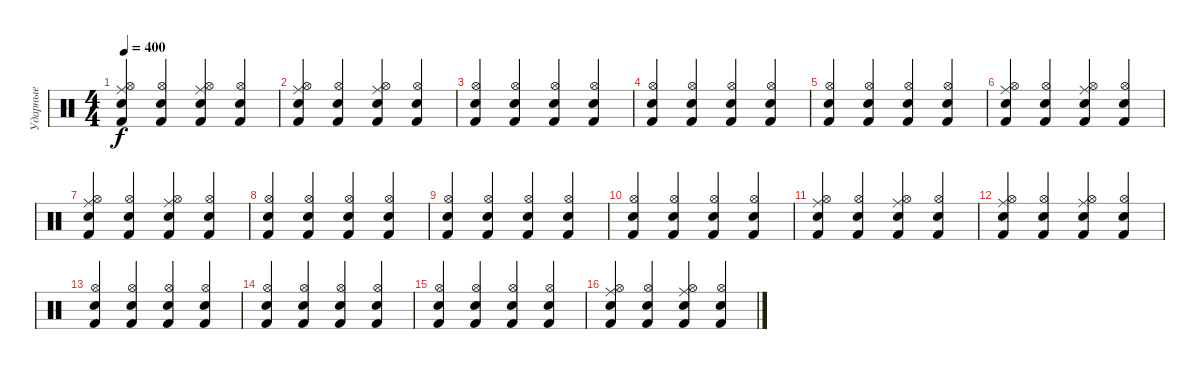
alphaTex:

\track ("Ударные" "Ударные") {instrument percussion}
\staff {score}
\articulation defaults
\ts (4 4)
\tempo 400
\clef neutral
\ks c
("Electric Snare (hit)" "Hi-Hat (open)" "Ride (middle)" "Kick (hit) 2").4{dy f} ("Hi-Hat (open)" "Kick (hit) 2" "Electric Snare (hit)").4 ("Electric Snare (hit)" "Kick (hit) 2" "Hi-Hat (open)" "Ride (middle)").4 ("Hi-Hat (open)" "Kick (hit) 2" "Electric Snare (hit)").4 |
("Electric Snare (hit)" "Hi-Hat (open)" "Ride (middle)" "Kick (hit) 2").4 ("Hi-Hat (open)" "Kick (hit) 2" "Electric Snare (hit)").4 ("Electric Snare (hit)" "Kick (hit) 2" "Hi-Hat (open)" "Ride (middle)").4 ("Hi-Hat (open)" "Kick (hit) 2" "Electric Snare (hit)").4 |
("Electric Snare (hit)" "Hi-Hat (open)" "Kick (hit) 2").4 ("Hi-Hat (open)" "Kick (hit) 2" "Electric Snare (hit)").4 ("Electric Snare (hit)" "Kick (hit) 2" "Hi-Hat (open)").4 ("Hi-Hat (open)" "Kick (hit) 2" "Electric Snare (hit)").4 |
("Electric Snare (hit)" "Hi-Hat (open)" "Kick (hit) 2").4 ("Hi-Hat (open)" "Kick (hit) 2" "Electric Snare (hit)").4 ("Electric Snare (hit)" "Kick (hit) 2" "Hi-Hat (open)").4 ("Hi-Hat (open)" "Kick (hit) 2" "Electric Snare (hit)").4 |
("Electric Snare (hit)" "Hi-Hat (open)" "Kick (hit) 2").4 ("Hi-Hat (open)" "Kick (hit) 2" "Electric Snare (hit)").4 ("Electric Snare (hit)" "Kick (hit) 2" "Hi-Hat (open)").4 ("Hi-Hat (open)" "Kick (hit) 2" "Electric Snare (hit)").4 |
("Electric Snare (hit)" "Hi-Hat (open)" "Ride (middle)" "Kick (hit) 2").4 ("Hi-Hat (open)" "Kick (hit) 2" "Electric Snare (hit)").4 ("Electric Snare (hit)" "Kick (hit) 2" "Hi-Hat (open)" "Ride (middle)").4 ("Hi-Hat (open)" "Kick (hit) 2" "Electric Snare (hit)").4 |
("Electric Snare (hit)" "Hi-Hat (open)" "Ride (middle)" "Kick (hit) 2").4 ("Hi-Hat (open)" "Kick (hit) 2" "Electric Snare (hit)").4 ("Electric Snare (hit)" "Kick (hit) 2" "Hi-Hat (open)" "Ride (middle)").4 ("Hi-Hat (open)" "Kick (hit) 2" "Electric Snare (hit)").4 |
("Electric Snare (hit)" "Hi-Hat (open)" "Kick (hit) 2").4 ("Hi-Hat (open)" "Kick (hit) 2" "Electric Snare (hit)").4 ("Electric Snare (hit)" "Kick (hit) 2" "Hi-Hat (open)").4 ("Hi-Hat (open)" "Kick (hit) 2" "Electric Snare (hit)").4 |
("Electric Snare (hit)" "Hi-Hat (open)" "Kick (hit) 2").4 ("Hi-Hat (open)" "Kick (hit) 2" "Electric Snare (hit)").4 ("Electric Snare (hit)" "Kick (hit) 2" "Hi-Hat (open)").4 ("Hi-Hat (open)" "Kick (hit) 2" "Electric Snare (hit)").4 |
("Electric Snare (hit)" "Hi-Hat (open)" "Kick (hit) 2").4 ("Hi-Hat (open)" "Kick (hit) 2" "Electric Snare (hit)").4 ("Electric Snare (hit)" "Kick (hit) 2" "Hi-Hat (open)").4 ("Hi-Hat (open)" "Kick (hit) 2" "Electric Snare (hit)").4 |
("Electric Snare (hit)" "Hi-Hat (open)" "Ride (middle)" "Kick (hit) 2").4 ("Hi-Hat (open)" "Kick (hit) 2" "Electric Snare (hit)").4 ("Electric Snare (hit)" "Kick (hit) 2" "Hi-Hat (open)" "Ride (middle)").4 ("Hi-Hat (open)" "Kick (hit) 2" "Electric Snare (hit)").4 |
("Electric Snare (hit)" "Hi-Hat (open)" "Ride (middle)" "Kick (hit) 2").4 ("Hi-Hat (open)" "Kick (hit) 2" "Electric Snare (hit)").4 ("Electric Snare (hit)" "Kick (hit) 2" "Hi-Hat (open)" "Ride (middle)").4 ("Hi-Hat (open)" "Kick (hit) 2" "Electric Snare (hit)").4 |
("Electric Snare (hit)" "Hi-Hat (open)" "Kick (hit) 2").4 ("Hi-Hat (open)" "Kick (hit) 2" "Electric Snare (hit)").4 ("Electric Snare (hit)" "Kick (hit) 2" "Hi-Hat (open)").4 ("Hi-Hat (open)" "Kick (hit) 2" "Electric Snare (hit)").4 |
("Electric Snare (hit)" "Hi-Hat (open)" "Kick (hit) 2").4 ("Hi-Hat (open)" "Kick (hit) 2" "Electric Snare (hit)").4 ("Electric Snare (hit)" "Kick (hit) 2" "Hi-Hat (open)").4 ("Hi-Hat (open)" "Kick (hit) 2" "Electric Snare (hit)").4 |
("Electric Snare (hit)" "Hi-Hat (open)" "Kick (hit) 2").4 ("Hi-Hat (open)" "Kick (hit) 2" "Electric Snare (hit)").4 ("Electric Snare (hit)" "Kick (hit) 2" "Hi-Hat (open)").4 ("Hi-Hat (open)" "Kick (hit) 2" "Electric Snare (hit)").4 |
("Electric Snare (hit)" "Hi-Hat (open)" "Ride (middle)" "Kick (hit) 2").4 ("Hi-Hat (open)" "Kick (hit) 2" "Electric Snare (hit)").4 ("Electric Snare (hit)" "Kick (hit) 2" "Hi-Hat (open)" "Ride (middle)").4 ("Hi-Hat (open)" "Kick (hit) 2" "Electric Snare (hit)").4
